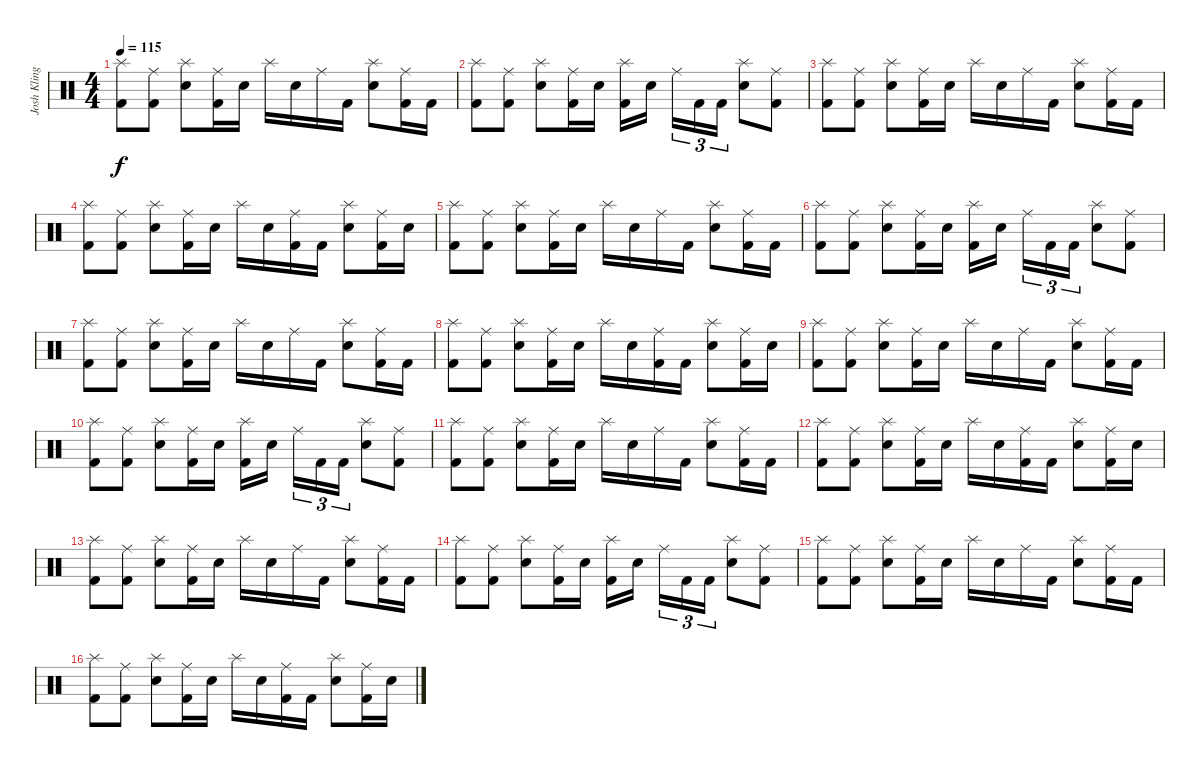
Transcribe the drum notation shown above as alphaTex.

\track ("Josh Klinghoffer " "Josh Kling") {instrument percussion}
\staff {score}
\articulation defaults
\ts (4 4)
\tempo 115
\clef neutral
\ks c
("Splash (hit)" "Kick (hit) 2").8{dy f} ("Ride (middle)" "Kick (hit) 2").8 ("Splash (hit)" "Electric Snare (hit)").8 ("Ride (middle)" "Kick (hit) 2").16 "Electric Snare (hit)".16 "Splash (hit)".16 "Electric Snare (hit)".16 "Ride (middle)".16 "Kick (hit) 2".16 ("Splash (hit)" "Electric Snare (hit)").8 ("Ride (middle)" "Kick (hit) 2").16 "Kick (hit) 2".16 |
("Splash (hit)" "Kick (hit) 2").8 ("Ride (middle)" "Kick (hit) 2").8 ("Splash (hit)" "Electric Snare (hit)").8 ("Ride (middle)" "Kick (hit) 2").16 "Electric Snare (hit)".16 ("Splash (hit)" "Kick (hit) 2").16 "Electric Snare (hit)".16{beam splitsecondary} "Ride (middle)".16{tu (3 2)} "Kick (hit) 2".16{tu (3 2)} "Kick (hit) 2".16{tu (3 2)} ("Splash (hit)" "Electric Snare (hit)").8 ("Ride (middle)" "Kick (hit) 2").8 |
("Splash (hit)" "Kick (hit) 2").8 ("Ride (middle)" "Kick (hit) 2").8 ("Splash (hit)" "Electric Snare (hit)").8 ("Ride (middle)" "Kick (hit) 2").16 "Electric Snare (hit)".16 "Splash (hit)".16 "Electric Snare (hit)".16 "Ride (middle)".16 "Kick (hit) 2".16 ("Splash (hit)" "Electric Snare (hit)").8 ("Ride (middle)" "Kick (hit) 2").16 "Kick (hit) 2".16 |
("Splash (hit)" "Kick (hit) 2").8 ("Ride (middle)" "Kick (hit) 2").8 ("Splash (hit)" "Electric Snare (hit)").8 ("Ride (middle)" "Kick (hit) 2").16 "Electric Snare (hit)".16 "Splash (hit)".16 "Electric Snare (hit)".16 ("Ride (middle)" "Kick (hit) 2").16 "Kick (hit) 2".16 ("Splash (hit)" "Electric Snare (hit)").8 ("Ride (middle)" "Kick (hit) 2").16 "Electric Snare (hit)".16 |
("Splash (hit)" "Kick (hit) 2").8 ("Ride (middle)" "Kick (hit) 2").8 ("Splash (hit)" "Electric Snare (hit)").8 ("Ride (middle)" "Kick (hit) 2").16 "Electric Snare (hit)".16 "Splash (hit)".16 "Electric Snare (hit)".16 "Ride (middle)".16 "Kick (hit) 2".16 ("Splash (hit)" "Electric Snare (hit)").8 ("Ride (middle)" "Kick (hit) 2").16 "Kick (hit) 2".16 |
("Splash (hit)" "Kick (hit) 2").8 ("Ride (middle)" "Kick (hit) 2").8 ("Splash (hit)" "Electric Snare (hit)").8 ("Ride (middle)" "Kick (hit) 2").16 "Electric Snare (hit)".16 ("Splash (hit)" "Kick (hit) 2").16 "Electric Snare (hit)".16{beam splitsecondary} "Ride (middle)".16{tu (3 2)} "Kick (hit) 2".16{tu (3 2)} "Kick (hit) 2".16{tu (3 2)} ("Splash (hit)" "Electric Snare (hit)").8 ("Ride (middle)" "Kick (hit) 2").8 |
("Splash (hit)" "Kick (hit) 2").8 ("Ride (middle)" "Kick (hit) 2").8 ("Splash (hit)" "Electric Snare (hit)").8 ("Ride (middle)" "Kick (hit) 2").16 "Electric Snare (hit)".16 "Splash (hit)".16 "Electric Snare (hit)".16 "Ride (middle)".16 "Kick (hit) 2".16 ("Splash (hit)" "Electric Snare (hit)").8 ("Ride (middle)" "Kick (hit) 2").16 "Kick (hit) 2".16 |
("Splash (hit)" "Kick (hit) 2").8 ("Ride (middle)" "Kick (hit) 2").8 ("Splash (hit)" "Electric Snare (hit)").8 ("Ride (middle)" "Kick (hit) 2").16 "Electric Snare (hit)".16 "Splash (hit)".16 "Electric Snare (hit)".16 ("Ride (middle)" "Kick (hit) 2").16 "Kick (hit) 2".16 ("Splash (hit)" "Electric Snare (hit)").8 ("Ride (middle)" "Kick (hit) 2").16 "Electric Snare (hit)".16 |
("Splash (hit)" "Kick (hit) 2").8 ("Ride (middle)" "Kick (hit) 2").8 ("Splash (hit)" "Electric Snare (hit)").8 ("Ride (middle)" "Kick (hit) 2").16 "Electric Snare (hit)".16 "Splash (hit)".16 "Electric Snare (hit)".16 "Ride (middle)".16 "Kick (hit) 2".16 ("Splash (hit)" "Electric Snare (hit)").8 ("Ride (middle)" "Kick (hit) 2").16 "Kick (hit) 2".16 |
("Splash (hit)" "Kick (hit) 2").8 ("Ride (middle)" "Kick (hit) 2").8 ("Splash (hit)" "Electric Snare (hit)").8 ("Ride (middle)" "Kick (hit) 2").16 "Electric Snare (hit)".16 ("Splash (hit)" "Kick (hit) 2").16 "Electric Snare (hit)".16{beam splitsecondary} "Ride (middle)".16{tu (3 2)} "Kick (hit) 2".16{tu (3 2)} "Kick (hit) 2".16{tu (3 2)} ("Splash (hit)" "Electric Snare (hit)").8 ("Ride (middle)" "Kick (hit) 2").8 |
("Splash (hit)" "Kick (hit) 2").8 ("Ride (middle)" "Kick (hit) 2").8 ("Splash (hit)" "Electric Snare (hit)").8 ("Ride (middle)" "Kick (hit) 2").16 "Electric Snare (hit)".16 "Splash (hit)".16 "Electric Snare (hit)".16 "Ride (middle)".16 "Kick (hit) 2".16 ("Splash (hit)" "Electric Snare (hit)").8 ("Ride (middle)" "Kick (hit) 2").16 "Kick (hit) 2".16 |
("Splash (hit)" "Kick (hit) 2").8 ("Ride (middle)" "Kick (hit) 2").8 ("Splash (hit)" "Electric Snare (hit)").8 ("Ride (middle)" "Kick (hit) 2").16 "Electric Snare (hit)".16 "Splash (hit)".16 "Electric Snare (hit)".16 ("Ride (middle)" "Kick (hit) 2").16 "Kick (hit) 2".16 ("Splash (hit)" "Electric Snare (hit)").8 ("Ride (middle)" "Kick (hit) 2").16 "Electric Snare (hit)".16 |
("Splash (hit)" "Kick (hit) 2").8 ("Ride (middle)" "Kick (hit) 2").8 ("Splash (hit)" "Electric Snare (hit)").8 ("Ride (middle)" "Kick (hit) 2").16 "Electric Snare (hit)".16 "Splash (hit)".16 "Electric Snare (hit)".16 "Ride (middle)".16 "Kick (hit) 2".16 ("Splash (hit)" "Electric Snare (hit)").8 ("Ride (middle)" "Kick (hit) 2").16 "Kick (hit) 2".16 |
("Splash (hit)" "Kick (hit) 2").8 ("Ride (middle)" "Kick (hit) 2").8 ("Splash (hit)" "Electric Snare (hit)").8 ("Ride (middle)" "Kick (hit) 2").16 "Electric Snare (hit)".16 ("Splash (hit)" "Kick (hit) 2").16 "Electric Snare (hit)".16{beam splitsecondary} "Ride (middle)".16{tu (3 2)} "Kick (hit) 2".16{tu (3 2)} "Kick (hit) 2".16{tu (3 2)} ("Splash (hit)" "Electric Snare (hit)").8 ("Ride (middle)" "Kick (hit) 2").8 |
("Splash (hit)" "Kick (hit) 2").8 ("Ride (middle)" "Kick (hit) 2").8 ("Splash (hit)" "Electric Snare (hit)").8 ("Ride (middle)" "Kick (hit) 2").16 "Electric Snare (hit)".16 "Splash (hit)".16 "Electric Snare (hit)".16 "Ride (middle)".16 "Kick (hit) 2".16 ("Splash (hit)" "Electric Snare (hit)").8 ("Ride (middle)" "Kick (hit) 2").16 "Kick (hit) 2".16 |
("Splash (hit)" "Kick (hit) 2").8 ("Ride (middle)" "Kick (hit) 2").8 ("Splash (hit)" "Electric Snare (hit)").8 ("Ride (middle)" "Kick (hit) 2").16 "Electric Snare (hit)".16 "Splash (hit)".16 "Electric Snare (hit)".16 ("Ride (middle)" "Kick (hit) 2").16 "Kick (hit) 2".16 ("Splash (hit)" "Electric Snare (hit)").8 ("Ride (middle)" "Kick (hit) 2").16 "Electric Snare (hit)".16
